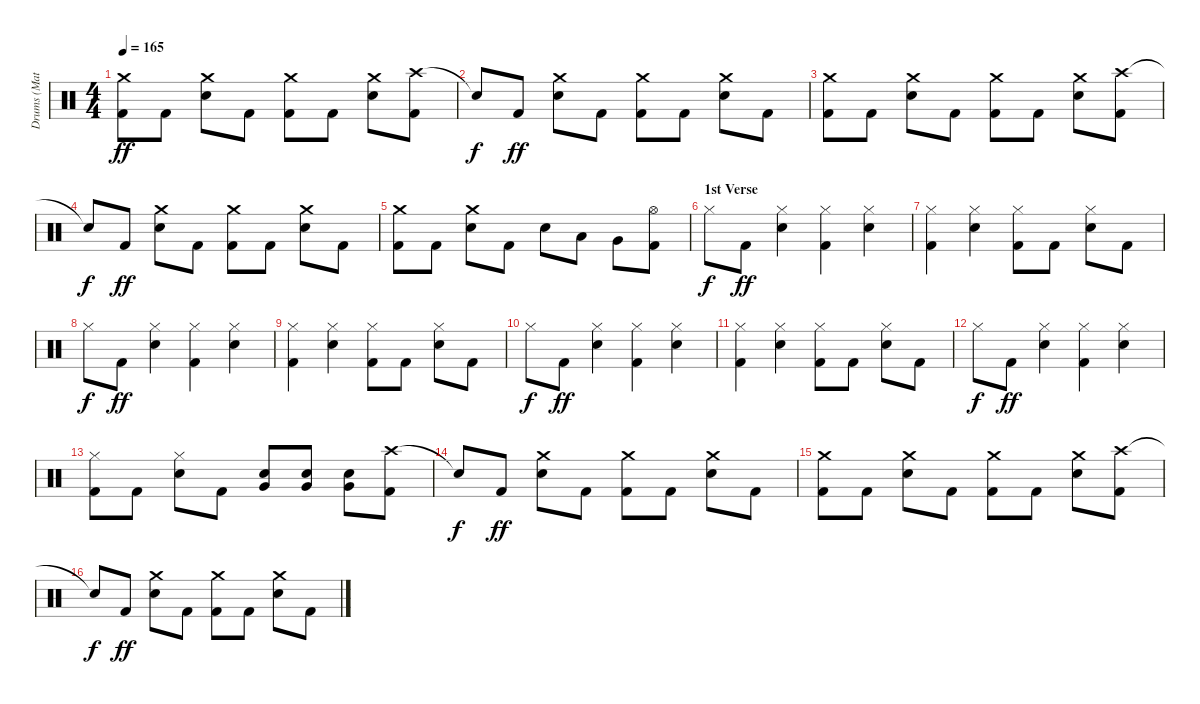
\track ("Drums (Matt)" "Drums (Mat") {instrument percussion}
\staff {score}
\articulation defaults
\ts (4 4)
\tempo 165
\clef neutral
\ks c
("Crash medium (hit)" "Kick (hit) 2").8{dy ff} "Kick (hit) 2".8 ("Crash medium (hit)" "Snare (hit) 2").8 "Kick (hit) 2".8 ("Crash medium (hit)" "Kick (hit) 2").8 "Kick (hit) 2".8 ("Crash medium (hit)" "Snare (hit) 2").8 ("Crash high (hit)" "Kick (hit) 2").8 |
"Snare (hit)"{t}.8{dy f} "Kick (hit) 2".8{dy ff} ("Crash medium (hit)" "Snare (hit) 2").8 "Kick (hit) 2".8 ("Crash medium (hit)" "Kick (hit) 2").8 "Kick (hit) 2".8 ("Crash medium (hit)" "Snare (hit) 2").8 "Kick (hit) 2".8 |
("Crash medium (hit)" "Kick (hit) 2").8 "Kick (hit) 2".8 ("Crash medium (hit)" "Snare (hit) 2").8 "Kick (hit) 2".8 ("Crash medium (hit)" "Kick (hit) 2").8 "Kick (hit) 2".8 ("Crash medium (hit)" "Snare (hit) 2").8 ("Crash high (hit)" "Kick (hit) 2").8 |
"Snare (hit)"{t}.8{dy f} "Kick (hit) 2".8{dy ff} ("Crash medium (hit)" "Snare (hit) 2").8 "Kick (hit) 2".8 ("Crash medium (hit)" "Kick (hit) 2").8 "Kick (hit) 2".8 ("Crash medium (hit)" "Snare (hit) 2").8 "Kick (hit) 2".8 |
("Crash medium (hit)" "Kick (hit) 2").8 "Kick (hit) 2".8 ("Crash medium (hit)" "Snare (hit) 2").8 "Kick (hit) 2".8 "Snare (hit) 2".8 "Low Tom (hit)".8 "Very Low Tom (hit)".8 ("Hi-Hat (open)" "Kick (hit) 2").8 |
\section ("" "1st Verse")
"Hi-Hat (closed)".8{dy f} "Kick (hit) 2".8{dy ff} ("Hi-Hat (closed)" "Snare (hit) 2").4 ("Hi-Hat (closed)" "Kick (hit) 2").4 ("Hi-Hat (closed)" "Snare (hit) 2").4 |
("Hi-Hat (closed)" "Kick (hit) 2").4 ("Hi-Hat (closed)" "Snare (hit) 2").4 ("Hi-Hat (closed)" "Kick (hit) 2").8 "Kick (hit) 2".8 ("Hi-Hat (closed)" "Snare (hit) 2").8 "Kick (hit) 2".8 |
"Hi-Hat (closed)".8{dy f} "Kick (hit) 2".8{dy ff} ("Hi-Hat (closed)" "Snare (hit) 2").4 ("Hi-Hat (closed)" "Kick (hit) 2").4 ("Hi-Hat (closed)" "Snare (hit) 2").4 |
("Hi-Hat (closed)" "Kick (hit) 2").4 ("Hi-Hat (closed)" "Snare (hit) 2").4 ("Hi-Hat (closed)" "Kick (hit) 2").8 "Kick (hit) 2".8 ("Hi-Hat (closed)" "Snare (hit) 2").8 "Kick (hit) 2".8 |
"Hi-Hat (closed)".8{dy f} "Kick (hit) 2".8{dy ff} ("Hi-Hat (closed)" "Snare (hit) 2").4 ("Hi-Hat (closed)" "Kick (hit) 2").4 ("Hi-Hat (closed)" "Snare (hit) 2").4 |
("Hi-Hat (closed)" "Kick (hit) 2").4 ("Hi-Hat (closed)" "Snare (hit) 2").4 ("Hi-Hat (closed)" "Kick (hit) 2").8 "Kick (hit) 2".8 ("Hi-Hat (closed)" "Snare (hit) 2").8 "Kick (hit) 2".8 |
"Hi-Hat (closed)".8{dy f} "Kick (hit) 2".8{dy ff} ("Hi-Hat (closed)" "Snare (hit) 2").4 ("Hi-Hat (closed)" "Kick (hit) 2").4 ("Hi-Hat (closed)" "Snare (hit) 2").4 |
("Hi-Hat (closed)" "Kick (hit) 2").8 "Kick (hit) 2".8 ("Hi-Hat (closed)" "Snare (hit) 2").8 "Kick (hit) 2".8 ("Very Low Tom (hit)" "Snare (hit) 2").8 ("Very Low Tom (hit)" "Snare (hit) 2").8 ("Very Low Tom (hit)" "Snare (hit) 2").8 ("Crash high (hit)" "Kick (hit) 2").8 |
"Snare (hit)"{t}.8{dy f} "Kick (hit) 2".8{dy ff} ("Crash medium (hit)" "Snare (hit) 2").8 "Kick (hit) 2".8 ("Crash medium (hit)" "Kick (hit) 2").8 "Kick (hit) 2".8 ("Crash medium (hit)" "Snare (hit) 2").8 "Kick (hit) 2".8 |
("Crash medium (hit)" "Kick (hit) 2").8 "Kick (hit) 2".8 ("Crash medium (hit)" "Snare (hit) 2").8 "Kick (hit) 2".8 ("Crash medium (hit)" "Kick (hit) 2").8 "Kick (hit) 2".8 ("Crash medium (hit)" "Snare (hit) 2").8 ("Crash high (hit)" "Kick (hit) 2").8 |
"Snare (hit)"{t}.8{dy f} "Kick (hit) 2".8{dy ff} ("Crash medium (hit)" "Snare (hit) 2").8 "Kick (hit) 2".8 ("Crash medium (hit)" "Kick (hit) 2").8 "Kick (hit) 2".8 ("Crash medium (hit)" "Snare (hit) 2").8 "Kick (hit) 2".8
